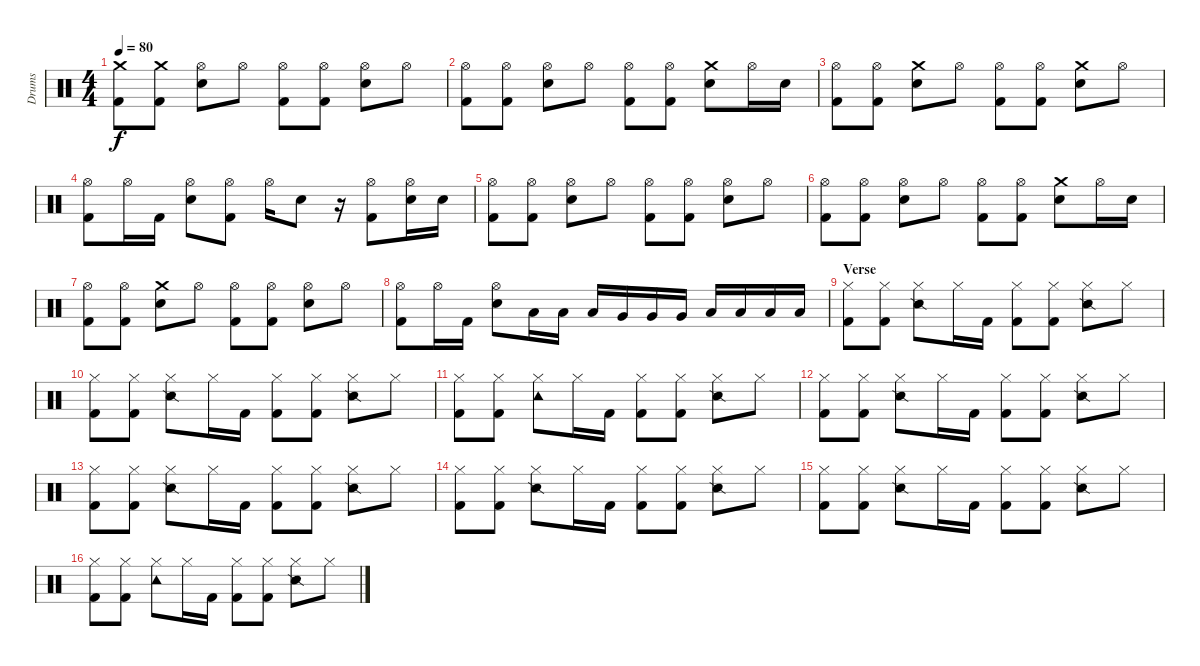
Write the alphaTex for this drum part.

\track ("Drums" "Drums") {instrument percussion}
\staff {score}
\articulation defaults
\ts (4 4)
\tempo 80
\clef neutral
\ks c
("Crash medium (hit)" "Kick (hit) 2").8{dy f} ("Crash medium (hit)" "Kick (hit) 2").8 ("Hi-Hat (open)" "Snare (hit) 2").8 "Hi-Hat (open)".8 ("Hi-Hat (open)" "Kick (hit) 2").8 ("Hi-Hat (open)" "Kick (hit) 2").8 ("Hi-Hat (open)" "Snare (hit) 2").8 "Hi-Hat (open)".8 |
("Hi-Hat (open)" "Kick (hit) 2").8 ("Hi-Hat (open)" "Kick (hit) 2").8 ("Hi-Hat (open)" "Snare (hit) 2").8 "Hi-Hat (open)".8 ("Hi-Hat (open)" "Kick (hit) 2").8 ("Hi-Hat (open)" "Kick (hit) 2").8 ("Crash medium (hit)" "Snare (hit) 2").8 "Hi-Hat (open)".16 "Snare (hit) 2".16 |
("Hi-Hat (open)" "Kick (hit) 2").8 ("Hi-Hat (open)" "Kick (hit) 2").8 ("Crash medium (hit)" "Snare (hit) 2").8 "Hi-Hat (open)".8 ("Hi-Hat (open)" "Kick (hit) 2").8 ("Hi-Hat (open)" "Kick (hit) 2").8 ("Crash medium (hit)" "Snare (hit) 2").8 "Hi-Hat (open)".8 |
("Hi-Hat (open)" "Kick (hit) 2").8 "Hi-Hat (open)".16 "Kick (hit) 2".16 ("Hi-Hat (open)" "Snare (hit) 2").8 ("Hi-Hat (open)" "Kick (hit) 2").8 "Hi-Hat (open)".16 "Snare (hit) 2".8 r.16 ("Hi-Hat (open)" "Kick (hit) 2").8 ("Hi-Hat (open)" "Snare (hit) 2").16 "Snare (hit) 2".16 |
("Hi-Hat (open)" "Kick (hit) 2").8 ("Hi-Hat (open)" "Kick (hit) 2").8 ("Hi-Hat (open)" "Snare (hit) 2").8 "Hi-Hat (open)".8 ("Hi-Hat (open)" "Kick (hit) 2").8 ("Hi-Hat (open)" "Kick (hit) 2").8 ("Hi-Hat (open)" "Snare (hit) 2").8 "Hi-Hat (open)".8 |
("Hi-Hat (open)" "Kick (hit) 2").8 ("Hi-Hat (open)" "Kick (hit) 2").8 ("Hi-Hat (open)" "Snare (hit) 2").8 "Hi-Hat (open)".8 ("Hi-Hat (open)" "Kick (hit) 2").8 ("Hi-Hat (open)" "Kick (hit) 2").8 ("Crash medium (hit)" "Snare (hit) 2").8 "Hi-Hat (open)".16 "Snare (hit) 2".16 |
("Hi-Hat (open)" "Kick (hit) 2").8 ("Hi-Hat (open)" "Kick (hit) 2").8 ("Crash medium (hit)" "Snare (hit) 2").8 "Hi-Hat (open)".8 ("Hi-Hat (open)" "Kick (hit) 2").8 ("Hi-Hat (open)" "Kick (hit) 2").8 ("Hi-Hat (open)" "Snare (hit) 2").8 "Hi-Hat (open)".8 |
("Hi-Hat (open)" "Kick (hit) 2").8 "Hi-Hat (open)".16 "Kick (hit) 2".16 ("Hi-Hat (open)" "Snare (hit) 2").8 "Low Tom (hit)".16 "Low Tom (hit)".16 "Low Tom (hit)".16 "Very Low Tom (hit)".16 "Very Low Tom (hit)".16 "Very Low Tom (hit)".16 "Low Floor Tom (hit)".16 "Low Floor Tom (hit)".16 "Low Floor Tom (hit)".16 "Low Floor Tom (hit)".16 |
\section ("" "Verse")
("Hi-Hat (closed)" "Kick (hit) 2").8 ("Hi-Hat (closed)" "Kick (hit) 2").8 ("Hi-Hat (closed)" "Snare (side stick) 2").8 "Hi-Hat (closed)".16 "Kick (hit) 2".16 ("Hi-Hat (closed)" "Kick (hit) 2").8 ("Hi-Hat (closed)" "Kick (hit) 2").8 ("Hi-Hat (closed)" "Snare (side stick) 2").8 "Hi-Hat (closed)".8 |
("Hi-Hat (closed)" "Kick (hit) 2").8 ("Hi-Hat (closed)" "Kick (hit) 2").8 ("Hi-Hat (closed)" "Snare (side stick) 2").8 "Hi-Hat (closed)".16 "Kick (hit) 2".16 ("Hi-Hat (closed)" "Kick (hit) 2").8 ("Hi-Hat (closed)" "Kick (hit) 2").8 ("Hi-Hat (closed)" "Snare (side stick) 2").8 "Hi-Hat (closed)".8 |
("Hi-Hat (closed)" "Kick (hit) 2").8 ("Hi-Hat (closed)" "Kick (hit) 2").8 ("Hi-Hat (closed)" "Tambourine (hit)").8 "Hi-Hat (closed)".16 "Kick (hit) 2".16 ("Hi-Hat (closed)" "Kick (hit) 2").8 ("Hi-Hat (closed)" "Kick (hit) 2").8 ("Hi-Hat (closed)" "Snare (side stick) 2").8 "Hi-Hat (closed)".8 |
("Hi-Hat (closed)" "Kick (hit) 2").8 ("Hi-Hat (closed)" "Kick (hit) 2").8 ("Hi-Hat (closed)" "Snare (side stick) 2").8 "Hi-Hat (closed)".16 "Kick (hit) 2".16 ("Hi-Hat (closed)" "Kick (hit) 2").8 ("Hi-Hat (closed)" "Kick (hit) 2").8 ("Hi-Hat (closed)" "Snare (side stick) 2").8 "Hi-Hat (closed)".8 |
("Hi-Hat (closed)" "Kick (hit) 2").8 ("Hi-Hat (closed)" "Kick (hit) 2").8 ("Hi-Hat (closed)" "Snare (side stick) 2").8 "Hi-Hat (closed)".16 "Kick (hit) 2".16 ("Hi-Hat (closed)" "Kick (hit) 2").8 ("Hi-Hat (closed)" "Kick (hit) 2").8 ("Hi-Hat (closed)" "Snare (side stick) 2").8 "Hi-Hat (closed)".8 |
("Hi-Hat (closed)" "Kick (hit) 2").8 ("Hi-Hat (closed)" "Kick (hit) 2").8 ("Hi-Hat (closed)" "Snare (side stick) 2").8 "Hi-Hat (closed)".16 "Kick (hit) 2".16 ("Hi-Hat (closed)" "Kick (hit) 2").8 ("Hi-Hat (closed)" "Kick (hit) 2").8 ("Hi-Hat (closed)" "Snare (side stick) 2").8 "Hi-Hat (closed)".8 |
("Hi-Hat (closed)" "Kick (hit) 2").8 ("Hi-Hat (closed)" "Kick (hit) 2").8 ("Hi-Hat (closed)" "Snare (side stick) 2").8 "Hi-Hat (closed)".16 "Kick (hit) 2".16 ("Hi-Hat (closed)" "Kick (hit) 2").8 ("Hi-Hat (closed)" "Kick (hit) 2").8 ("Hi-Hat (closed)" "Snare (side stick) 2").8 "Hi-Hat (closed)".8 |
("Hi-Hat (closed)" "Kick (hit) 2").8 ("Hi-Hat (closed)" "Kick (hit) 2").8 ("Hi-Hat (closed)" "Tambourine (hit)").8 "Hi-Hat (closed)".16 "Kick (hit) 2".16 ("Hi-Hat (closed)" "Kick (hit) 2").8 ("Hi-Hat (closed)" "Kick (hit) 2").8 ("Hi-Hat (closed)" "Snare (side stick) 2").8 "Hi-Hat (closed)".8
